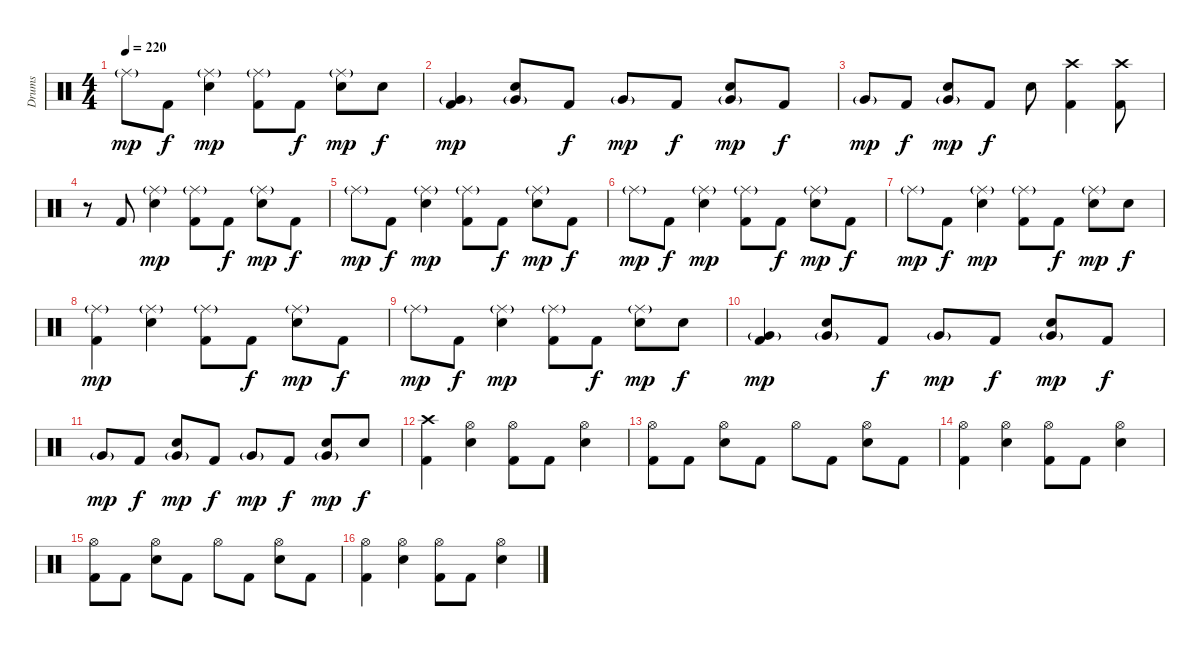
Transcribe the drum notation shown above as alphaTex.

\track ("Drums" "Drums") {instrument percussion}
\staff {score}
\articulation defaults
\ts (4 4)
\tempo 220
\clef neutral
\ks c "Ride (middle)"{g}.8{dy mp} "Kick (hit) 2".8{dy f}
("Ride (middle)"{g} "Snare (hit) 2").4{dy mp} ("Ride (middle)"{g} "Kick (hit) 2").8 "Kick (hit) 2".8{dy f} ("Ride (middle)"{g} "Snare (hit) 2").8{dy mp} "Snare (hit) 2".8{dy f} |
("Very Low Tom (hit)"{g} "Kick (hit) 2").4{dy mp} ("Snare (hit) 2" "Very Low Tom (hit)"{g}).8 "Kick (hit) 2".8{dy f} "Very Low Tom (hit)"{g}.8{dy mp} "Kick (hit) 2".8{dy f} ("Snare (hit) 2" "Very Low Tom (hit)"{g}).8{dy mp} "Kick (hit) 2".8{dy f} |
"Very Low Tom (hit)"{g}.8{dy mp} "Kick (hit) 2".8{dy f} ("Snare (hit) 2" "Very Low Tom (hit)"{g}).8{dy mp} "Kick (hit) 2".8{dy f} "Snare (hit) 2".8 ("Crash high (hit)" "Kick (hit) 2").4 ("Crash high (hit)" "Kick (hit) 2").8 |
r.8 "Kick (hit) 2".8 ("Ride (middle)"{g} "Snare (hit) 2").4{dy mp} ("Ride (middle)"{g} "Kick (hit) 2").8 "Kick (hit) 2".8{dy f} ("Ride (middle)"{g} "Snare (hit) 2").8{dy mp} "Kick (hit) 2".8{dy f} |
"Ride (middle)"{g}.8{dy mp} "Kick (hit) 2".8{dy f} ("Ride (middle)"{g} "Snare (hit) 2").4{dy mp} ("Ride (middle)"{g} "Kick (hit) 2").8 "Kick (hit) 2".8{dy f} ("Ride (middle)"{g} "Snare (hit) 2").8{dy mp} "Kick (hit) 2".8{dy f} |
"Ride (middle)"{g}.8{dy mp} "Kick (hit) 2".8{dy f} ("Ride (middle)"{g} "Snare (hit) 2").4{dy mp} ("Ride (middle)"{g} "Kick (hit) 2").8 "Kick (hit) 2".8{dy f} ("Ride (middle)"{g} "Snare (hit) 2").8{dy mp} "Kick (hit) 2".8{dy f} |
"Ride (middle)"{g}.8{dy mp} "Kick (hit) 2".8{dy f} ("Ride (middle)"{g} "Snare (hit) 2").4{dy mp} ("Ride (middle)"{g} "Kick (hit) 2").8 "Kick (hit) 2".8{dy f} ("Ride (middle)"{g} "Snare (hit) 2").8{dy mp} "Snare (hit) 2".8{dy f} |
("Ride (middle)"{g} "Kick (hit) 2").4{dy mp} ("Ride (middle)"{g} "Snare (hit) 2").4 ("Ride (middle)"{g} "Kick (hit) 2").8 "Kick (hit) 2".8{dy f} ("Ride (middle)"{g} "Snare (hit) 2").8{dy mp} "Kick (hit) 2".8{dy f} |
"Ride (middle)"{g}.8{dy mp} "Kick (hit) 2".8{dy f} ("Ride (middle)"{g} "Snare (hit) 2").4{dy mp} ("Ride (middle)"{g} "Kick (hit) 2").8 "Kick (hit) 2".8{dy f} ("Ride (middle)"{g} "Snare (hit) 2").8{dy mp} "Snare (hit) 2".8{dy f} |
("Very Low Tom (hit)"{g} "Kick (hit) 2").4{dy mp} ("Snare (hit) 2" "Very Low Tom (hit)"{g}).8 "Kick (hit) 2".8{dy f} "Very Low Tom (hit)"{g}.8{dy mp} "Kick (hit) 2".8{dy f} ("Snare (hit) 2" "Very Low Tom (hit)"{g}).8{dy mp} "Kick (hit) 2".8{dy f} |
"Very Low Tom (hit)"{g}.8{dy mp} "Kick (hit) 2".8{dy f} ("Snare (hit) 2" "Very Low Tom (hit)"{g}).8{dy mp} "Kick (hit) 2".8{dy f} "Very Low Tom (hit)"{g}.8{dy mp} "Kick (hit) 2".8{dy f} ("Snare (hit) 2" "Very Low Tom (hit)"{g}).8{dy mp} "Snare (hit) 2".8{dy f} |
("Crash high (hit)" "Kick (hit) 2").4 ("Hi-Hat (open)" "Snare (hit) 2").4 ("Hi-Hat (open)" "Kick (hit) 2").8 "Kick (hit) 2".8 ("Hi-Hat (open)" "Snare (hit) 2").4 |
("Hi-Hat (open)" "Kick (hit) 2").8 "Kick (hit) 2".8 ("Hi-Hat (open)" "Snare (hit) 2").8 "Kick (hit) 2".8 "Hi-Hat (open)".8 "Kick (hit) 2".8 ("Hi-Hat (open)" "Snare (hit) 2").8 "Kick (hit) 2".8 |
("Hi-Hat (open)" "Kick (hit) 2").4 ("Hi-Hat (open)" "Snare (hit) 2").4 ("Hi-Hat (open)" "Kick (hit) 2").8 "Kick (hit) 2".8 ("Hi-Hat (open)" "Snare (hit) 2").4 |
("Hi-Hat (open)" "Kick (hit) 2").8 "Kick (hit) 2".8 ("Hi-Hat (open)" "Snare (hit) 2").8 "Kick (hit) 2".8 "Hi-Hat (open)".8 "Kick (hit) 2".8 ("Hi-Hat (open)" "Snare (hit) 2").8 "Kick (hit) 2".8 |
("Hi-Hat (open)" "Kick (hit) 2").4 ("Hi-Hat (open)" "Snare (hit) 2").4 ("Hi-Hat (open)" "Kick (hit) 2").8 "Kick (hit) 2".8 ("Hi-Hat (open)" "Snare (hit) 2").4
